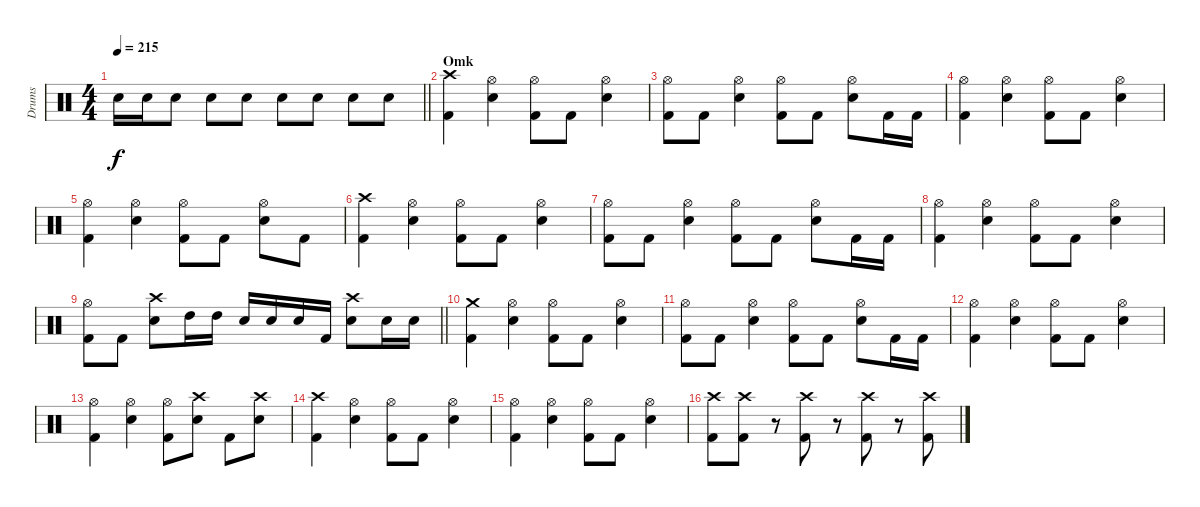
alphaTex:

\track ("Drums" "Drums") {instrument percussion}
\staff {score}
\articulation defaults
\ts (4 4)
\tempo 215
\clef neutral
\barLineRight lightlight
\ks c "Snare (hit) 2".16{dy f} "Snare (hit) 2".16 "Snare (hit) 2".8 "Snare (hit) 2".8 "Snare (hit) 2".8 "Snare (hit) 2".8 "Snare (hit) 2".8 "Snare (hit) 2".8 "Snare (hit) 2".8
|
\section ("" "Omk")
("Crash high (hit)" "Kick (hit) 2").4 ("Hi-Hat (open)" "Snare (hit) 2").4 ("Hi-Hat (open)" "Kick (hit) 2").8 "Kick (hit) 2".8 ("Hi-Hat (open)" "Snare (hit) 2").4 |
("Hi-Hat (open)" "Kick (hit) 2").8 "Kick (hit) 2".8 ("Hi-Hat (open)" "Snare (hit) 2").4 ("Hi-Hat (open)" "Kick (hit) 2").8 "Kick (hit) 2".8 ("Hi-Hat (open)" "Snare (hit) 2").8 "Kick (hit) 2".16 "Kick (hit) 2".16 |
("Hi-Hat (open)" "Kick (hit) 2").4 ("Hi-Hat (open)" "Snare (hit) 2").4 ("Hi-Hat (open)" "Kick (hit) 2").8 "Kick (hit) 2".8 ("Hi-Hat (open)" "Snare (hit) 2").4 |
("Hi-Hat (open)" "Kick (hit) 2").4 ("Hi-Hat (open)" "Snare (hit) 2").4 ("Hi-Hat (open)" "Kick (hit) 2").8 "Kick (hit) 2".8 ("Hi-Hat (open)" "Snare (hit) 2").8 "Kick (hit) 2".8 |
("Crash high (hit)" "Kick (hit) 2").4 ("Hi-Hat (open)" "Snare (hit) 2").4 ("Hi-Hat (open)" "Kick (hit) 2").8 "Kick (hit) 2".8 ("Hi-Hat (open)" "Snare (hit) 2").4 |
("Hi-Hat (open)" "Kick (hit) 2").8 "Kick (hit) 2".8 ("Hi-Hat (open)" "Snare (hit) 2").4 ("Hi-Hat (open)" "Kick (hit) 2").8 "Kick (hit) 2".8 ("Hi-Hat (open)" "Snare (hit) 2").8 "Kick (hit) 2".16 "Kick (hit) 2".16 |
("Hi-Hat (open)" "Kick (hit) 2").4 ("Hi-Hat (open)" "Snare (hit) 2").4 ("Hi-Hat (open)" "Kick (hit) 2").8 "Kick (hit) 2".8 ("Hi-Hat (open)" "Snare (hit) 2").4 |
\barLineRight lightlight
("Hi-Hat (open)" "Kick (hit) 2").8 "Kick (hit) 2".8 ("Crash high (hit)" "Snare (hit) 2").8 "High Tom (hit)".16 "High Tom (hit)".16 "Snare (hit) 2".16 "Snare (hit) 2".16 "Snare (hit) 2".16 "Kick (hit) 2".16 ("Crash high (hit)" "Snare (hit) 2").8 "Snare (hit) 2".16 "Snare (hit) 2".16 |
("Crash medium (hit)" "Kick (hit) 2").4 ("Hi-Hat (open)" "Snare (hit) 2").4 ("Hi-Hat (open)" "Kick (hit) 2").8 "Kick (hit) 2".8 ("Hi-Hat (open)" "Snare (hit) 2").4 |
("Hi-Hat (open)" "Kick (hit) 2").8 "Kick (hit) 2".8 ("Hi-Hat (open)" "Snare (hit) 2").4 ("Hi-Hat (open)" "Kick (hit) 2").8 "Kick (hit) 2".8 ("Hi-Hat (open)" "Snare (hit) 2").8 "Kick (hit) 2".16 "Kick (hit) 2".16 |
("Hi-Hat (open)" "Kick (hit) 2").4 ("Hi-Hat (open)" "Snare (hit) 2").4 ("Hi-Hat (open)" "Kick (hit) 2").8 "Kick (hit) 2".8 ("Hi-Hat (open)" "Snare (hit) 2").4 |
("Hi-Hat (open)" "Kick (hit) 2").4 ("Hi-Hat (open)" "Snare (hit) 2").4 ("Hi-Hat (open)" "Kick (hit) 2").8 ("Crash high (hit)" "Snare (hit) 2").8 "Kick (hit) 2".8 ("Crash high (hit)" "Snare (hit) 2").8 |
("Crash high (hit)" "Kick (hit) 2").4 ("Hi-Hat (open)" "Snare (hit) 2").4 ("Hi-Hat (open)" "Kick (hit) 2").8 "Kick (hit) 2".8 ("Hi-Hat (open)" "Snare (hit) 2").4 |
("Hi-Hat (open)" "Kick (hit) 2").4 ("Hi-Hat (open)" "Snare (hit) 2").4 ("Hi-Hat (open)" "Kick (hit) 2").8 "Kick (hit) 2".8 ("Hi-Hat (open)" "Snare (hit) 2").4 |
("Crash high (hit)" "Kick (hit) 2").8 ("Crash high (hit)" "Kick (hit) 2").8 r.8 ("Crash high (hit)" "Kick (hit) 2").8 r.8 ("Crash high (hit)" "Kick (hit) 2").8 r.8 ("Crash high (hit)" "Kick (hit) 2").8
